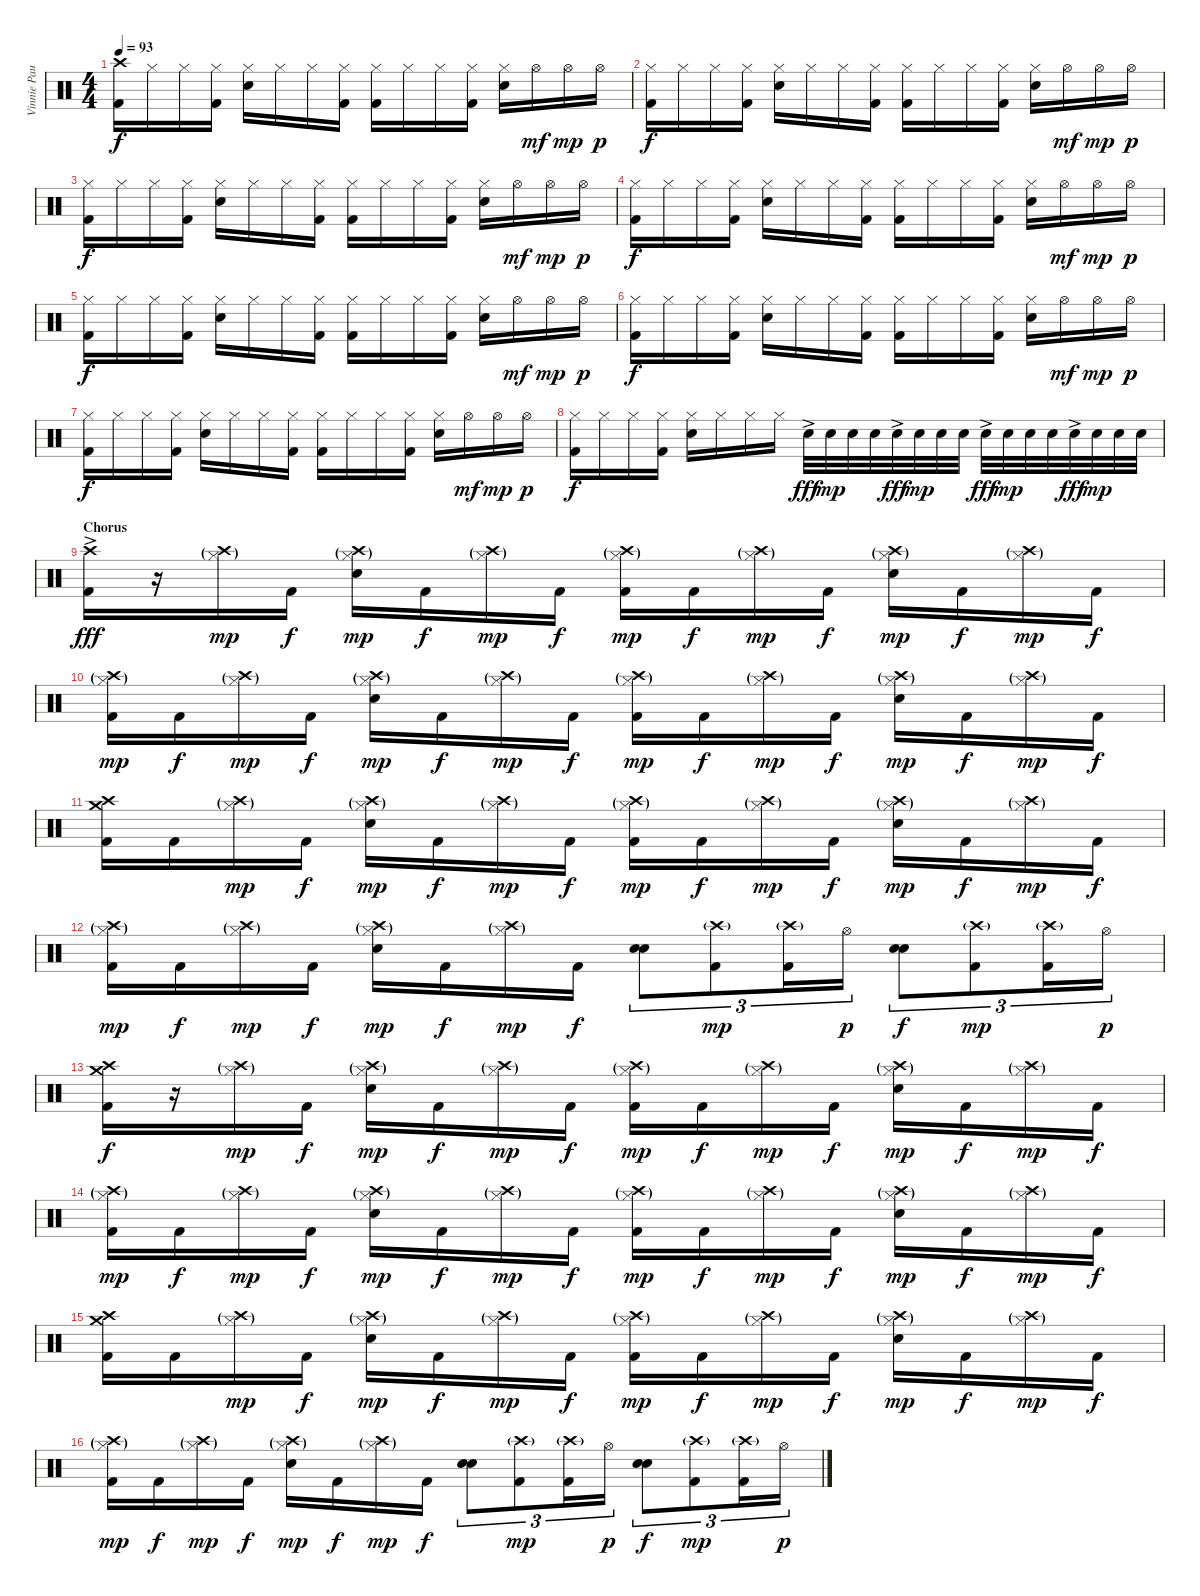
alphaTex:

\track ("Vinnie Paul" "Vinnie Pau") {instrument percussion}
\staff {score}
\articulation defaults
\ts (4 4)
\tempo 93
\clef neutral
\ks c
("Crash high (hit)" "Kick (hit) 2").16{dy f} "Hi-Hat (closed)".16 "Hi-Hat (closed)".16 ("Hi-Hat (closed)" "Kick (hit) 2").16 ("Hi-Hat (closed)" "Electric Snare (hit)").16 "Hi-Hat (closed)".16 "Hi-Hat (closed)".16 ("Hi-Hat (closed)" "Kick (hit) 2").16 ("Hi-Hat (closed)" "Kick (hit) 2").16 "Hi-Hat (closed)".16 "Hi-Hat (closed)".16 ("Hi-Hat (closed)" "Kick (hit) 2").16 ("Hi-Hat (closed)" "Electric Snare (hit)").16 "Hi-Hat (open)".16{dy mf} "Hi-Hat (open)".16{dy mp} "Hi-Hat (open)".16{dy p} |
("Hi-Hat (closed)" "Kick (hit) 2").16{dy f} "Hi-Hat (closed)".16 "Hi-Hat (closed)".16 ("Hi-Hat (closed)" "Kick (hit) 2").16 ("Hi-Hat (closed)" "Electric Snare (hit)").16 "Hi-Hat (closed)".16 "Hi-Hat (closed)".16 ("Hi-Hat (closed)" "Kick (hit) 2").16 ("Hi-Hat (closed)" "Kick (hit) 2").16 "Hi-Hat (closed)".16 "Hi-Hat (closed)".16 ("Hi-Hat (closed)" "Kick (hit) 2").16 ("Hi-Hat (closed)" "Electric Snare (hit)").16 "Hi-Hat (open)".16{dy mf} "Hi-Hat (open)".16{dy mp} "Hi-Hat (open)".16{dy p} |
("Hi-Hat (closed)" "Kick (hit) 2").16{dy f} "Hi-Hat (closed)".16 "Hi-Hat (closed)".16 ("Hi-Hat (closed)" "Kick (hit) 2").16 ("Hi-Hat (closed)" "Electric Snare (hit)").16 "Hi-Hat (closed)".16 "Hi-Hat (closed)".16 ("Hi-Hat (closed)" "Kick (hit) 2").16 ("Hi-Hat (closed)" "Kick (hit) 2").16 "Hi-Hat (closed)".16 "Hi-Hat (closed)".16 ("Hi-Hat (closed)" "Kick (hit) 2").16 ("Hi-Hat (closed)" "Electric Snare (hit)").16 "Hi-Hat (open)".16{dy mf} "Hi-Hat (open)".16{dy mp} "Hi-Hat (open)".16{dy p} |
("Hi-Hat (closed)" "Kick (hit) 2").16{dy f} "Hi-Hat (closed)".16 "Hi-Hat (closed)".16 ("Hi-Hat (closed)" "Kick (hit) 2").16 ("Hi-Hat (closed)" "Electric Snare (hit)").16 "Hi-Hat (closed)".16 "Hi-Hat (closed)".16 ("Hi-Hat (closed)" "Kick (hit) 2").16 ("Hi-Hat (closed)" "Kick (hit) 2").16 "Hi-Hat (closed)".16 "Hi-Hat (closed)".16 ("Hi-Hat (closed)" "Kick (hit) 2").16 ("Hi-Hat (closed)" "Electric Snare (hit)").16 "Hi-Hat (open)".16{dy mf} "Hi-Hat (open)".16{dy mp} "Hi-Hat (open)".16{dy p} |
("Hi-Hat (closed)" "Kick (hit) 2").16{dy f} "Hi-Hat (closed)".16 "Hi-Hat (closed)".16 ("Hi-Hat (closed)" "Kick (hit) 2").16 ("Hi-Hat (closed)" "Electric Snare (hit)").16 "Hi-Hat (closed)".16 "Hi-Hat (closed)".16 ("Hi-Hat (closed)" "Kick (hit) 2").16 ("Hi-Hat (closed)" "Kick (hit) 2").16 "Hi-Hat (closed)".16 "Hi-Hat (closed)".16 ("Hi-Hat (closed)" "Kick (hit) 2").16 ("Hi-Hat (closed)" "Electric Snare (hit)").16 "Hi-Hat (open)".16{dy mf} "Hi-Hat (open)".16{dy mp} "Hi-Hat (open)".16{dy p} |
("Hi-Hat (closed)" "Kick (hit) 2").16{dy f} "Hi-Hat (closed)".16 "Hi-Hat (closed)".16 ("Hi-Hat (closed)" "Kick (hit) 2").16 ("Hi-Hat (closed)" "Electric Snare (hit)").16 "Hi-Hat (closed)".16 "Hi-Hat (closed)".16 ("Hi-Hat (closed)" "Kick (hit) 2").16 ("Hi-Hat (closed)" "Kick (hit) 2").16 "Hi-Hat (closed)".16 "Hi-Hat (closed)".16 ("Hi-Hat (closed)" "Kick (hit) 2").16 ("Hi-Hat (closed)" "Electric Snare (hit)").16 "Hi-Hat (open)".16{dy mf} "Hi-Hat (open)".16{dy mp} "Hi-Hat (open)".16{dy p} |
("Hi-Hat (closed)" "Kick (hit) 2").16{dy f} "Hi-Hat (closed)".16 "Hi-Hat (closed)".16 ("Hi-Hat (closed)" "Kick (hit) 2").16 ("Hi-Hat (closed)" "Electric Snare (hit)").16 "Hi-Hat (closed)".16 "Hi-Hat (closed)".16 ("Hi-Hat (closed)" "Kick (hit) 2").16 ("Hi-Hat (closed)" "Kick (hit) 2").16 "Hi-Hat (closed)".16 "Hi-Hat (closed)".16 ("Hi-Hat (closed)" "Kick (hit) 2").16 ("Hi-Hat (closed)" "Electric Snare (hit)").16 "Hi-Hat (open)".16{dy mf} "Hi-Hat (open)".16{dy mp} "Hi-Hat (open)".16{dy p} |
("Hi-Hat (closed)" "Kick (hit) 2").16{dy f} "Hi-Hat (closed)".16 "Hi-Hat (closed)".16 ("Hi-Hat (closed)" "Kick (hit) 2").16 ("Hi-Hat (closed)" "Electric Snare (hit)").16 "Hi-Hat (closed)".16 "Hi-Hat (closed)".16 "Hi-Hat (closed)".16 "Electric Snare (hit)"{ac}.32{dy fff} "Electric Snare (hit)".32{dy mp} "Electric Snare (hit)".32 "Electric Snare (hit)".32 "Electric Snare (hit)"{ac}.32{dy fff} "Electric Snare (hit)".32{dy mp} "Electric Snare (hit)".32 "Electric Snare (hit)".32 "Electric Snare (hit)"{ac}.32{dy fff} "Electric Snare (hit)".32{dy mp} "Electric Snare (hit)".32 "Electric Snare (hit)".32 "Electric Snare (hit)"{ac}.32{dy fff} "Electric Snare (hit)".32{dy mp} "Electric Snare (hit)".32 "Electric Snare (hit)".32 |
\section ("" "Chorus")
("Crash high (hit)" "Kick (hit) 2"{ac}).16{dy fff} r.16 ("Crash high (hit)"{g} "Hi-Hat (closed)"{g}).16{dy mp} "Kick (hit) 2".16{dy f} ("Crash high (hit)"{g} "Hi-Hat (closed)"{g} "Electric Snare (hit)").16{dy mp} "Kick (hit) 2".16{dy f} ("Crash high (hit)"{g} "Hi-Hat (closed)"{g}).16{dy mp} "Kick (hit) 2".16{dy f} ("Crash high (hit)"{g} "Hi-Hat (closed)"{g} "Kick (hit) 2").16{dy mp} "Kick (hit) 2".16{dy f} ("Crash high (hit)"{g} "Hi-Hat (closed)"{g}).16{dy mp} "Kick (hit) 2".16{dy f} ("Crash high (hit)"{g} "Hi-Hat (closed)"{g} "Electric Snare (hit)").16{dy mp} "Kick (hit) 2".16{dy f} ("Crash high (hit)"{g} "Hi-Hat (closed)"{g}).16{dy mp} "Kick (hit) 2".16{dy f} |
("Crash high (hit)"{g} "Hi-Hat (closed)"{g} "Kick (hit) 2").16{dy mp} "Kick (hit) 2".16{dy f} ("Crash high (hit)"{g} "Hi-Hat (closed)"{g}).16{dy mp} "Kick (hit) 2".16{dy f} ("Crash high (hit)"{g} "Hi-Hat (closed)"{g} "Electric Snare (hit)").16{dy mp} "Kick (hit) 2".16{dy f} ("Crash high (hit)"{g} "Hi-Hat (closed)"{g}).16{dy mp} "Kick (hit) 2".16{dy f} ("Crash high (hit)"{g} "Hi-Hat (closed)"{g} "Kick (hit) 2").16{dy mp} "Kick (hit) 2".16{dy f} ("Crash high (hit)"{g} "Hi-Hat (closed)"{g}).16{dy mp} "Kick (hit) 2".16{dy f} ("Crash high (hit)"{g} "Hi-Hat (closed)"{g} "Electric Snare (hit)").16{dy mp} "Kick (hit) 2".16{dy f} ("Crash high (hit)"{g} "Hi-Hat (closed)"{g}).16{dy mp} "Kick (hit) 2".16{dy f} |
("Crash high (hit)" "Crash medium (hit)" "Kick (hit) 2").16 "Kick (hit) 2".16 ("Crash high (hit)"{g} "Hi-Hat (closed)"{g}).16{dy mp} "Kick (hit) 2".16{dy f} ("Crash high (hit)"{g} "Hi-Hat (closed)"{g} "Electric Snare (hit)").16{dy mp} "Kick (hit) 2".16{dy f} ("Crash high (hit)"{g} "Hi-Hat (closed)"{g}).16{dy mp} "Kick (hit) 2".16{dy f} ("Crash high (hit)"{g} "Hi-Hat (closed)"{g} "Kick (hit) 2").16{dy mp} "Kick (hit) 2".16{dy f} ("Crash high (hit)"{g} "Hi-Hat (closed)"{g}).16{dy mp} "Kick (hit) 2".16{dy f} ("Crash high (hit)"{g} "Hi-Hat (closed)"{g} "Electric Snare (hit)").16{dy mp} "Kick (hit) 2".16{dy f} ("Crash high (hit)"{g} "Hi-Hat (closed)"{g}).16{dy mp} "Kick (hit) 2".16{dy f} |
("Crash high (hit)"{g} "Hi-Hat (closed)"{g} "Kick (hit) 2").16{dy mp} "Kick (hit) 2".16{dy f} ("Crash high (hit)"{g} "Hi-Hat (closed)"{g}).16{dy mp} "Kick (hit) 2".16{dy f} ("Crash high (hit)"{g} "Hi-Hat (closed)"{g} "Electric Snare (hit)").16{dy mp} "Kick (hit) 2".16{dy f} ("Crash high (hit)"{g} "Hi-Hat (closed)"{g}).16{dy mp} "Kick (hit) 2".16{dy f} ("Electric Snare (hit)" "Electric Snare (hit)").8{tu (3 2) bd 480} ("Crash high (hit)"{g} "Kick (hit) 2").8{tu (3 2) dy mp} ("Crash high (hit)"{g} "Kick (hit) 2").16{tu (3 2)} "Hi-Hat (open)".16{tu (3 2) dy p} ("Electric Snare (hit)" "Electric Snare (hit)").8{tu (3 2) bd 480 dy f} ("Crash high (hit)"{g} "Kick (hit) 2").8{tu (3 2) dy mp} ("Crash high (hit)"{g} "Kick (hit) 2").16{tu (3 2)} "Hi-Hat (open)".16{tu (3 2) dy p} |
("Crash high (hit)" "Crash medium (hit)" "Kick (hit) 2").16{dy f} r.16 ("Crash high (hit)"{g} "Hi-Hat (closed)"{g}).16{dy mp} "Kick (hit) 2".16{dy f} ("Crash high (hit)"{g} "Hi-Hat (closed)"{g} "Electric Snare (hit)").16{dy mp} "Kick (hit) 2".16{dy f} ("Crash high (hit)"{g} "Hi-Hat (closed)"{g}).16{dy mp} "Kick (hit) 2".16{dy f} ("Crash high (hit)"{g} "Hi-Hat (closed)"{g} "Kick (hit) 2").16{dy mp} "Kick (hit) 2".16{dy f} ("Crash high (hit)"{g} "Hi-Hat (closed)"{g}).16{dy mp} "Kick (hit) 2".16{dy f} ("Crash high (hit)"{g} "Hi-Hat (closed)"{g} "Electric Snare (hit)").16{dy mp} "Kick (hit) 2".16{dy f} ("Crash high (hit)"{g} "Hi-Hat (closed)"{g}).16{dy mp} "Kick (hit) 2".16{dy f} |
("Crash high (hit)"{g} "Hi-Hat (closed)"{g} "Kick (hit) 2").16{dy mp} "Kick (hit) 2".16{dy f} ("Crash high (hit)"{g} "Hi-Hat (closed)"{g}).16{dy mp} "Kick (hit) 2".16{dy f} ("Crash high (hit)"{g} "Hi-Hat (closed)"{g} "Electric Snare (hit)").16{dy mp} "Kick (hit) 2".16{dy f} ("Crash high (hit)"{g} "Hi-Hat (closed)"{g}).16{dy mp} "Kick (hit) 2".16{dy f} ("Crash high (hit)"{g} "Hi-Hat (closed)"{g} "Kick (hit) 2").16{dy mp} "Kick (hit) 2".16{dy f} ("Crash high (hit)"{g} "Hi-Hat (closed)"{g}).16{dy mp} "Kick (hit) 2".16{dy f} ("Crash high (hit)"{g} "Hi-Hat (closed)"{g} "Electric Snare (hit)").16{dy mp} "Kick (hit) 2".16{dy f} ("Crash high (hit)"{g} "Hi-Hat (closed)"{g}).16{dy mp} "Kick (hit) 2".16{dy f} |
("Crash high (hit)" "Crash medium (hit)" "Kick (hit) 2").16 "Kick (hit) 2".16 ("Crash high (hit)"{g} "Hi-Hat (closed)"{g}).16{dy mp} "Kick (hit) 2".16{dy f} ("Crash high (hit)"{g} "Hi-Hat (closed)"{g} "Electric Snare (hit)").16{dy mp} "Kick (hit) 2".16{dy f} ("Crash high (hit)"{g} "Hi-Hat (closed)"{g}).16{dy mp} "Kick (hit) 2".16{dy f} ("Crash high (hit)"{g} "Hi-Hat (closed)"{g} "Kick (hit) 2").16{dy mp} "Kick (hit) 2".16{dy f} ("Crash high (hit)"{g} "Hi-Hat (closed)"{g}).16{dy mp} "Kick (hit) 2".16{dy f} ("Crash high (hit)"{g} "Hi-Hat (closed)"{g} "Electric Snare (hit)").16{dy mp} "Kick (hit) 2".16{dy f} ("Crash high (hit)"{g} "Hi-Hat (closed)"{g}).16{dy mp} "Kick (hit) 2".16{dy f} |
("Crash high (hit)"{g} "Hi-Hat (closed)"{g} "Kick (hit) 2").16{dy mp} "Kick (hit) 2".16{dy f} ("Crash high (hit)"{g} "Hi-Hat (closed)"{g}).16{dy mp} "Kick (hit) 2".16{dy f} ("Crash high (hit)"{g} "Hi-Hat (closed)"{g} "Electric Snare (hit)").16{dy mp} "Kick (hit) 2".16{dy f} ("Crash high (hit)"{g} "Hi-Hat (closed)"{g}).16{dy mp} "Kick (hit) 2".16{dy f} ("Electric Snare (hit)" "Electric Snare (hit)").8{tu (3 2) bd 480} ("Crash high (hit)"{g} "Kick (hit) 2").8{tu (3 2) dy mp} ("Crash high (hit)"{g} "Kick (hit) 2").16{tu (3 2)} "Hi-Hat (open)".16{tu (3 2) dy p} ("Electric Snare (hit)" "Electric Snare (hit)").8{tu (3 2) bd 480 dy f} ("Crash high (hit)"{g} "Kick (hit) 2").8{tu (3 2) dy mp} ("Crash high (hit)"{g} "Kick (hit) 2").16{tu (3 2)} "Hi-Hat (open)".16{tu (3 2) dy p}
